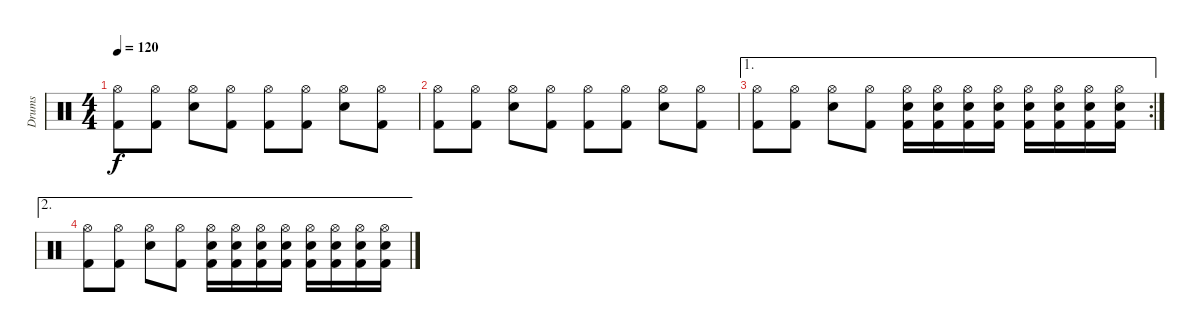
\track ("Drums" "Drums") {instrument percussion}
\staff {score}
\articulation defaults
\ts (4 4)
\tempo 120
\clef neutral
\ks c
("Hi-Hat (open)" "Kick (hit) 2").8{dy f} ("Hi-Hat (open)" "Kick (hit) 2").8 ("Hi-Hat (open)" "Electric Snare (hit)").8 ("Hi-Hat (open)" "Kick (hit) 2").8 ("Hi-Hat (open)" "Kick (hit) 2").8 ("Hi-Hat (open)" "Kick (hit) 2").8 ("Hi-Hat (open)" "Electric Snare (hit)").8 ("Hi-Hat (open)" "Kick (hit) 2").8 |
("Hi-Hat (open)" "Kick (hit) 2").8 ("Hi-Hat (open)" "Kick (hit) 2").8 ("Hi-Hat (open)" "Electric Snare (hit)").8 ("Hi-Hat (open)" "Kick (hit) 2").8 ("Hi-Hat (open)" "Kick (hit) 2").8 ("Hi-Hat (open)" "Kick (hit) 2").8 ("Hi-Hat (open)" "Electric Snare (hit)").8 ("Hi-Hat (open)" "Kick (hit) 2").8 |
\ae 1
\rc 2
("Hi-Hat (open)" "Kick (hit) 2").8 ("Hi-Hat (open)" "Kick (hit) 2").8 ("Hi-Hat (open)" "Electric Snare (hit)").8 ("Hi-Hat (open)" "Kick (hit) 2").8 ("Hi-Hat (open)" "Kick (hit) 2" "Electric Snare (hit)").16 ("Hi-Hat (open)" "Kick (hit) 2" "Electric Snare (hit)").16 ("Hi-Hat (open)" "Kick (hit) 2" "Electric Snare (hit)").16 ("Hi-Hat (open)" "Kick (hit) 2" "Electric Snare (hit)").16 ("Hi-Hat (open)" "Kick (hit) 2" "Electric Snare (hit)").16 ("Hi-Hat (open)" "Kick (hit) 2" "Electric Snare (hit)").16 ("Hi-Hat (open)" "Kick (hit) 2" "Electric Snare (hit)").16 ("Hi-Hat (open)" "Kick (hit) 2" "Electric Snare (hit)").16 |
\ae 2
("Hi-Hat (open)" "Kick (hit) 2").8 ("Hi-Hat (open)" "Kick (hit) 2").8 ("Hi-Hat (open)" "Electric Snare (hit)").8 ("Hi-Hat (open)" "Kick (hit) 2").8 ("Hi-Hat (open)" "Kick (hit) 2" "Electric Snare (hit)").16 ("Hi-Hat (open)" "Kick (hit) 2" "Electric Snare (hit)").16 ("Hi-Hat (open)" "Kick (hit) 2" "Electric Snare (hit)").16 ("Hi-Hat (open)" "Kick (hit) 2" "Electric Snare (hit)").16 ("Hi-Hat (open)" "Kick (hit) 2" "Electric Snare (hit)").16 ("Hi-Hat (open)" "Kick (hit) 2" "Electric Snare (hit)").16 ("Hi-Hat (open)" "Kick (hit) 2" "Electric Snare (hit)").16 ("Hi-Hat (open)" "Kick (hit) 2" "Electric Snare (hit)").16
